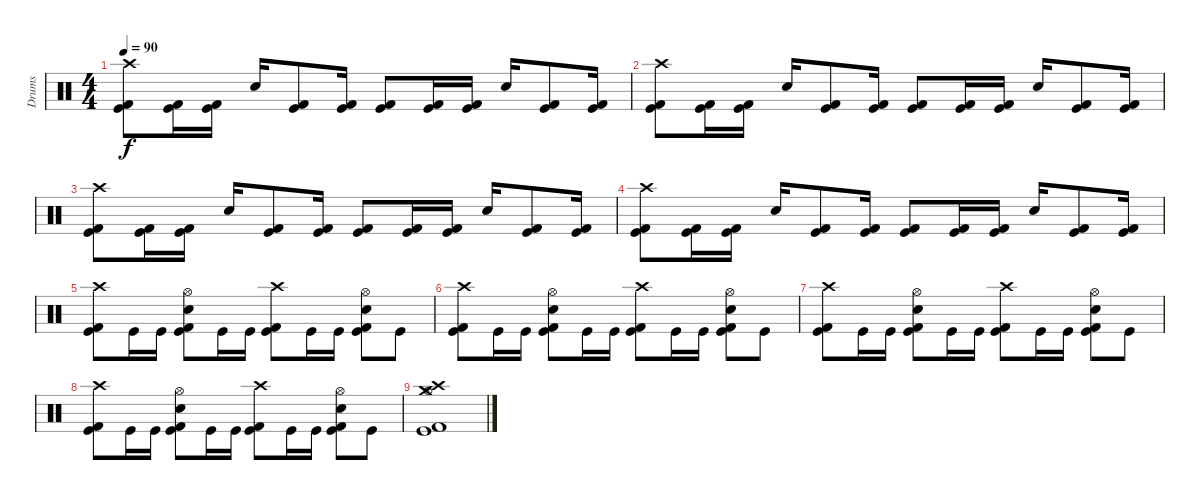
\track ("Drums" "Drums") {instrument percussion}
\staff {score}
\articulation defaults
\ts (4 4)
\tempo 90
\clef neutral
\ks c
("Crash high (hit)" "Kick (hit) 2" "Kick (hit)").8{dy f} ("Kick (hit) 2" "Kick (hit)").16 ("Kick (hit) 2" "Kick (hit)").16 "Snare (hit) 2".16 ("Kick (hit) 2" "Kick (hit)").8 ("Kick (hit) 2" "Kick (hit)").16 ("Kick (hit) 2" "Kick (hit)").8 ("Kick (hit) 2" "Kick (hit)").16 ("Kick (hit) 2" "Kick (hit)").16 "Snare (hit) 2".16 ("Kick (hit) 2" "Kick (hit)").8 ("Kick (hit) 2" "Kick (hit)").16 |
("Crash high (hit)" "Kick (hit) 2" "Kick (hit)").8 ("Kick (hit) 2" "Kick (hit)").16 ("Kick (hit) 2" "Kick (hit)").16 "Snare (hit) 2".16 ("Kick (hit) 2" "Kick (hit)").8 ("Kick (hit) 2" "Kick (hit)").16 ("Kick (hit) 2" "Kick (hit)").8 ("Kick (hit) 2" "Kick (hit)").16 ("Kick (hit) 2" "Kick (hit)").16 "Snare (hit) 2".16 ("Kick (hit) 2" "Kick (hit)").8 ("Kick (hit) 2" "Kick (hit)").16 |
("Crash high (hit)" "Kick (hit) 2" "Kick (hit)").8 ("Kick (hit) 2" "Kick (hit)").16 ("Kick (hit) 2" "Kick (hit)").16 "Snare (hit) 2".16 ("Kick (hit) 2" "Kick (hit)").8 ("Kick (hit) 2" "Kick (hit)").16 ("Kick (hit) 2" "Kick (hit)").8 ("Kick (hit) 2" "Kick (hit)").16 ("Kick (hit) 2" "Kick (hit)").16 "Snare (hit) 2".16 ("Kick (hit) 2" "Kick (hit)").8 ("Kick (hit) 2" "Kick (hit)").16 |
("Crash high (hit)" "Kick (hit) 2" "Kick (hit)").8 ("Kick (hit) 2" "Kick (hit)").16 ("Kick (hit) 2" "Kick (hit)").16 "Snare (hit) 2".16 ("Kick (hit) 2" "Kick (hit)").8 ("Kick (hit) 2" "Kick (hit)").16 ("Kick (hit) 2" "Kick (hit)").8 ("Kick (hit) 2" "Kick (hit)").16 ("Kick (hit) 2" "Kick (hit)").16 "Snare (hit) 2".16 ("Kick (hit) 2" "Kick (hit)").8 ("Kick (hit) 2" "Kick (hit)").16 |
("Crash high (hit)" "Kick (hit) 2" "Kick (hit)").8 "Kick (hit)".16 "Kick (hit)".16 ("Hi-Hat (open)" "Snare (hit) 2" "Kick (hit) 2" "Kick (hit)").8 "Kick (hit)".16 "Kick (hit)".16 ("Crash high (hit)" "Kick (hit) 2" "Kick (hit)").8 "Kick (hit)".16 "Kick (hit)".16 ("Hi-Hat (open)" "Snare (hit) 2" "Kick (hit) 2" "Kick (hit)").8 "Kick (hit)".8 |
("Crash high (hit)" "Kick (hit) 2" "Kick (hit)").8 "Kick (hit)".16 "Kick (hit)".16 ("Hi-Hat (open)" "Snare (hit) 2" "Kick (hit) 2" "Kick (hit)").8 "Kick (hit)".16 "Kick (hit)".16 ("Crash high (hit)" "Kick (hit) 2" "Kick (hit)").8 "Kick (hit)".16 "Kick (hit)".16 ("Hi-Hat (open)" "Snare (hit) 2" "Kick (hit) 2" "Kick (hit)").8 "Kick (hit)".8 |
("Crash high (hit)" "Kick (hit) 2" "Kick (hit)").8 "Kick (hit)".16 "Kick (hit)".16 ("Hi-Hat (open)" "Snare (hit) 2" "Kick (hit) 2" "Kick (hit)").8 "Kick (hit)".16 "Kick (hit)".16 ("Crash high (hit)" "Kick (hit) 2" "Kick (hit)").8 "Kick (hit)".16 "Kick (hit)".16 ("Hi-Hat (open)" "Snare (hit) 2" "Kick (hit) 2" "Kick (hit)").8 "Kick (hit)".8 |
("Crash high (hit)" "Kick (hit) 2" "Kick (hit)").8 "Kick (hit)".16 "Kick (hit)".16 ("Hi-Hat (open)" "Snare (hit) 2" "Kick (hit) 2" "Kick (hit)").8 "Kick (hit)".16 "Kick (hit)".16 ("Crash high (hit)" "Kick (hit) 2" "Kick (hit)").8 "Kick (hit)".16 "Kick (hit)".16 ("Hi-Hat (open)" "Snare (hit) 2" "Kick (hit) 2" "Kick (hit)").8 "Kick (hit)".8 |
("Crash high (hit)" "Crash medium (hit)" "Hi-Hat (open)" "Kick (hit)" "Kick (hit) 2").1
